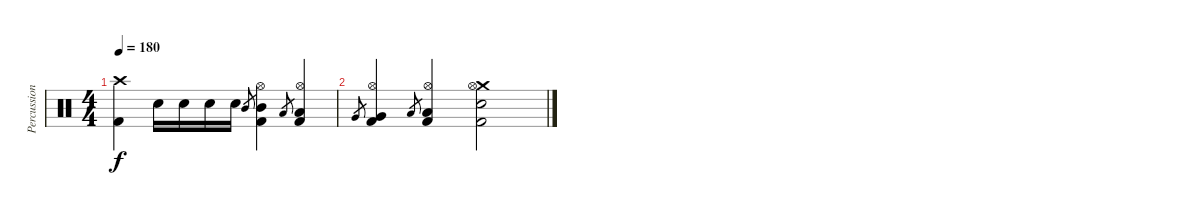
\track ("Percussion" "Percussion") {instrument percussion}
\staff {score}
\articulation defaults
\ts (4 4)
\tempo 180
\clef neutral
\ks c
("Crash high (hit)" "Kick (hit) 2").4{dy f} "Electric Snare (hit)".16 "Electric Snare (hit)".16 "Electric Snare (hit)".16 "Electric Snare (hit)".16 "Mid Tom (hit)".8{gr} ("Hi-Hat (open)" "Mid Tom (hit)" "Kick (hit) 2").4 "Low Tom (hit)".8{gr} ("Hi-Hat (open)" "Low Tom (hit)" "Kick (hit) 2").4 |
"Very Low Tom (hit)".8{gr} ("Hi-Hat (open)" "Very Low Tom (hit)" "Kick (hit) 2").4 "Low Floor Tom (hit)".8{gr} ("Hi-Hat (open)" "Low Floor Tom (hit)" "Kick (hit) 2").4 ("Crash medium (hit)" "Hi-Hat (open)" "Electric Snare (hit)" "Kick (hit) 2").2
